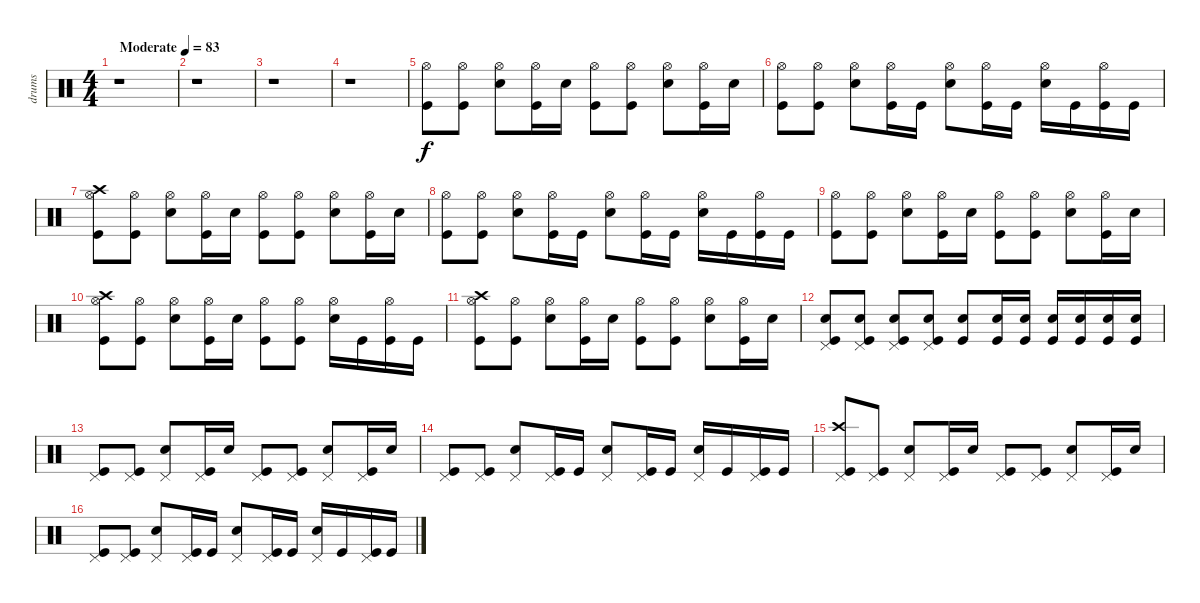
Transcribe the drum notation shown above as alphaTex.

\track ("drums" "drums") {instrument percussion}
\staff {score}
\articulation defaults
\ts (4 4)
\tempo (83 "Moderate")
\clef neutral
\ks c
r.1{dy f} |
r.1 |
r.1 |
r.1 |
("Hi-Hat (open)" "Kick (hit)").8 ("Hi-Hat (open)" "Kick (hit)").8 ("Hi-Hat (open)" "Snare (hit) 2").8 ("Hi-Hat (open)" "Kick (hit)").16 "Snare (hit) 2".16 ("Hi-Hat (open)" "Kick (hit)").8 ("Hi-Hat (open)" "Kick (hit)").8 ("Hi-Hat (open)" "Snare (hit) 2").8 ("Hi-Hat (open)" "Kick (hit)").16 "Snare (hit) 2".16 |
("Hi-Hat (open)" "Kick (hit)").8 ("Hi-Hat (open)" "Kick (hit)").8 ("Hi-Hat (open)" "Snare (hit) 2").8 ("Hi-Hat (open)" "Kick (hit)").16 "Kick (hit)".16 ("Hi-Hat (open)" "Snare (hit) 2").8 ("Hi-Hat (open)" "Kick (hit)").16 "Kick (hit)".16 ("Hi-Hat (open)" "Snare (hit) 2").16 "Kick (hit)".16 ("Hi-Hat (open)" "Kick (hit)").16 "Kick (hit)".16 |
("Hi-Hat (open)" "Crash high (hit)" "Kick (hit)").8 ("Hi-Hat (open)" "Kick (hit)").8 ("Hi-Hat (open)" "Snare (hit) 2").8 ("Hi-Hat (open)" "Kick (hit)").16 "Snare (hit) 2".16 ("Hi-Hat (open)" "Kick (hit)").8 ("Hi-Hat (open)" "Kick (hit)").8 ("Hi-Hat (open)" "Snare (hit) 2").8 ("Hi-Hat (open)" "Kick (hit)").16 "Snare (hit) 2".16 |
("Hi-Hat (open)" "Kick (hit)").8 ("Hi-Hat (open)" "Kick (hit)").8 ("Hi-Hat (open)" "Snare (hit) 2").8 ("Hi-Hat (open)" "Kick (hit)").16 "Kick (hit)".16 ("Hi-Hat (open)" "Snare (hit) 2").8 ("Hi-Hat (open)" "Kick (hit)").16 "Kick (hit)".16 ("Hi-Hat (open)" "Snare (hit) 2").16 "Kick (hit)".16 ("Hi-Hat (open)" "Kick (hit)").16 "Kick (hit)".16 |
("Hi-Hat (open)" "Kick (hit)").8 ("Hi-Hat (open)" "Kick (hit)").8 ("Hi-Hat (open)" "Snare (hit) 2").8 ("Hi-Hat (open)" "Kick (hit)").16 "Snare (hit) 2".16 ("Hi-Hat (open)" "Kick (hit)").8 ("Hi-Hat (open)" "Kick (hit)").8 ("Hi-Hat (open)" "Snare (hit) 2").8 ("Hi-Hat (open)" "Kick (hit)").16 "Snare (hit) 2".16 |
("Kick (hit)" "Crash high (hit)" "Hi-Hat (open)").8 ("Hi-Hat (open)" "Kick (hit)").8 ("Snare (hit) 2" "Hi-Hat (open)").8 ("Hi-Hat (open)" "Kick (hit)").16 "Snare (hit) 2".16 ("Kick (hit)" "Hi-Hat (open)").8 ("Kick (hit)" "Hi-Hat (open)").8 ("Snare (hit) 2" "Hi-Hat (open)").16 "Kick (hit)".16 ("Kick (hit)" "Hi-Hat (open)").16 "Kick (hit)".16 |
("Hi-Hat (open)" "Crash high (hit)" "Kick (hit)").8 ("Hi-Hat (open)" "Kick (hit)").8 ("Hi-Hat (open)" "Snare (hit) 2").8 ("Hi-Hat (open)" "Kick (hit)").16 "Snare (hit) 2".16 ("Hi-Hat (open)" "Kick (hit)").8 ("Hi-Hat (open)" "Kick (hit)").8 ("Hi-Hat (open)" "Snare (hit) 2").8 ("Kick (hit)" "Hi-Hat (open)").16 "Snare (hit) 2".16 |
("Kick (hit)" "Snare (hit) 2" "Pedal Hi-Hat (hit)").8 ("Kick (hit)" "Pedal Hi-Hat (hit)" "Snare (hit) 2").8 ("Kick (hit)" "Pedal Hi-Hat (hit)" "Snare (hit) 2").8 ("Kick (hit)" "Snare (hit) 2" "Pedal Hi-Hat (hit)").8 ("Kick (hit)" "Snare (hit) 2").8 ("Kick (hit)" "Snare (hit) 2").16 ("Kick (hit)" "Snare (hit) 2").16 ("Kick (hit)" "Snare (hit) 2").16 ("Kick (hit)" "Snare (hit) 2").16 ("Kick (hit)" "Snare (hit) 2").16 ("Kick (hit)" "Snare (hit) 2").16 |
("Pedal Hi-Hat (hit)" "Kick (hit)").8 ("Pedal Hi-Hat (hit)" "Kick (hit)").8 ("Pedal Hi-Hat (hit)" "Snare (hit) 2").8 ("Pedal Hi-Hat (hit)" "Kick (hit)").16 "Snare (hit) 2".16 ("Pedal Hi-Hat (hit)" "Kick (hit)").8 ("Pedal Hi-Hat (hit)" "Kick (hit)").8 ("Pedal Hi-Hat (hit)" "Snare (hit) 2").8 ("Pedal Hi-Hat (hit)" "Kick (hit)").16 "Snare (hit) 2".16 |
("Pedal Hi-Hat (hit)" "Kick (hit)").8 ("Pedal Hi-Hat (hit)" "Kick (hit)").8 ("Pedal Hi-Hat (hit)" "Snare (hit) 2").8 ("Pedal Hi-Hat (hit)" "Kick (hit)").16 "Kick (hit)".16 ("Pedal Hi-Hat (hit)" "Snare (hit) 2").8 ("Pedal Hi-Hat (hit)" "Kick (hit)").16 "Kick (hit)".16 ("Pedal Hi-Hat (hit)" "Snare (hit) 2").16 "Kick (hit)".16 ("Pedal Hi-Hat (hit)" "Kick (hit)").16 "Kick (hit)".16 |
("Crash high (hit)" "Pedal Hi-Hat (hit)" "Kick (hit)").8 ("Pedal Hi-Hat (hit)" "Kick (hit)").8 ("Pedal Hi-Hat (hit)" "Snare (hit) 2").8 ("Pedal Hi-Hat (hit)" "Kick (hit)").16 "Snare (hit) 2".16 ("Pedal Hi-Hat (hit)" "Kick (hit)").8 ("Pedal Hi-Hat (hit)" "Kick (hit)").8 ("Pedal Hi-Hat (hit)" "Snare (hit) 2").8 ("Pedal Hi-Hat (hit)" "Kick (hit)").16 "Snare (hit) 2".16 |
("Pedal Hi-Hat (hit)" "Kick (hit)").8 ("Pedal Hi-Hat (hit)" "Kick (hit)").8 ("Pedal Hi-Hat (hit)" "Snare (hit) 2").8 ("Pedal Hi-Hat (hit)" "Kick (hit)").16 "Kick (hit)".16 ("Pedal Hi-Hat (hit)" "Snare (hit) 2").8 ("Pedal Hi-Hat (hit)" "Kick (hit)").16 "Kick (hit)".16 ("Pedal Hi-Hat (hit)" "Snare (hit) 2").16 "Kick (hit)".16 ("Pedal Hi-Hat (hit)" "Kick (hit)").16 "Kick (hit)".16
